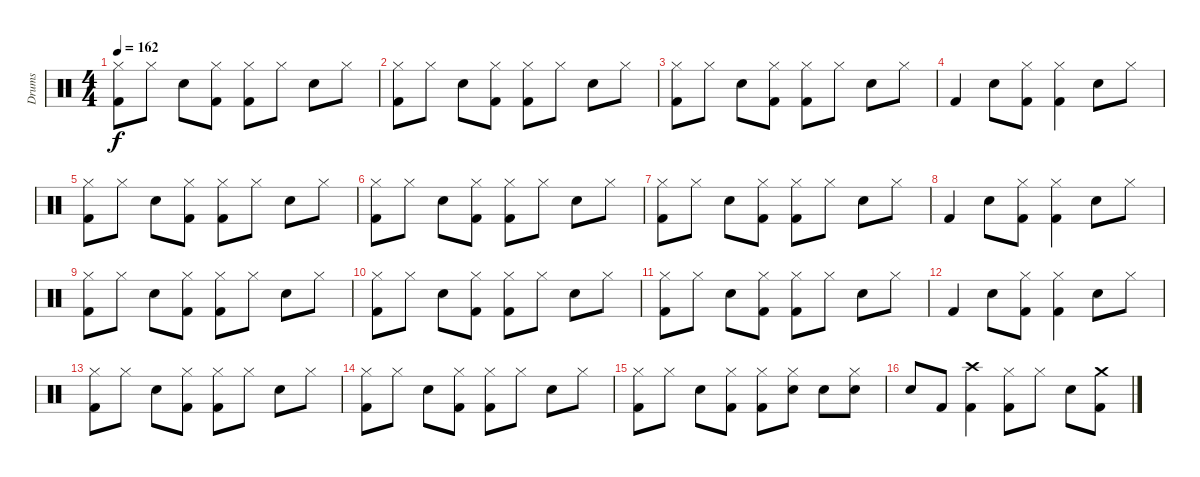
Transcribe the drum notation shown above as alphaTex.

\track ("Drums" "Drums") {instrument percussion}
\staff {score}
\articulation defaults
\ts (4 4)
\tempo 162
\clef neutral
\ks c
("Hi-Hat (closed)" "Kick (hit) 2").8{dy f} "Hi-Hat (closed)".8 "Snare (hit) 2".8 ("Hi-Hat (closed)" "Kick (hit) 2").8 ("Hi-Hat (closed)" "Kick (hit) 2").8 "Hi-Hat (closed)".8 "Snare (hit) 2".8 "Hi-Hat (closed)".8 |
("Hi-Hat (closed)" "Kick (hit) 2").8 "Hi-Hat (closed)".8 "Snare (hit) 2".8 ("Hi-Hat (closed)" "Kick (hit) 2").8 ("Hi-Hat (closed)" "Kick (hit) 2").8 "Hi-Hat (closed)".8 "Snare (hit) 2".8 "Hi-Hat (closed)".8 |
("Hi-Hat (closed)" "Kick (hit) 2").8 "Hi-Hat (closed)".8 "Snare (hit) 2".8 ("Hi-Hat (closed)" "Kick (hit) 2").8 ("Hi-Hat (closed)" "Kick (hit) 2").8 "Hi-Hat (closed)".8 "Snare (hit) 2".8 "Hi-Hat (closed)".8 |
"Kick (hit) 2".4 "Snare (hit) 2".8 ("Hi-Hat (closed)" "Kick (hit) 2").8 ("Hi-Hat (closed)" "Kick (hit) 2").4 "Snare (hit) 2".8 "Hi-Hat (closed)".8 |
("Hi-Hat (closed)" "Kick (hit) 2").8 "Hi-Hat (closed)".8 "Snare (hit) 2".8 ("Hi-Hat (closed)" "Kick (hit) 2").8 ("Hi-Hat (closed)" "Kick (hit) 2").8 "Hi-Hat (closed)".8 "Snare (hit) 2".8 "Hi-Hat (closed)".8 |
("Hi-Hat (closed)" "Kick (hit) 2").8 "Hi-Hat (closed)".8 "Snare (hit) 2".8 ("Hi-Hat (closed)" "Kick (hit) 2").8 ("Hi-Hat (closed)" "Kick (hit) 2").8 "Hi-Hat (closed)".8 "Snare (hit) 2".8 "Hi-Hat (closed)".8 |
("Hi-Hat (closed)" "Kick (hit) 2").8 "Hi-Hat (closed)".8 "Snare (hit) 2".8 ("Hi-Hat (closed)" "Kick (hit) 2").8 ("Hi-Hat (closed)" "Kick (hit) 2").8 "Hi-Hat (closed)".8 "Snare (hit) 2".8 "Hi-Hat (closed)".8 |
"Kick (hit) 2".4 "Snare (hit) 2".8 ("Hi-Hat (closed)" "Kick (hit) 2").8 ("Hi-Hat (closed)" "Kick (hit) 2").4 "Snare (hit) 2".8 "Hi-Hat (closed)".8 |
("Hi-Hat (closed)" "Kick (hit) 2").8 "Hi-Hat (closed)".8 "Snare (hit) 2".8 ("Hi-Hat (closed)" "Kick (hit) 2").8 ("Hi-Hat (closed)" "Kick (hit) 2").8 "Hi-Hat (closed)".8 "Snare (hit) 2".8 "Hi-Hat (closed)".8 |
("Hi-Hat (closed)" "Kick (hit) 2").8 "Hi-Hat (closed)".8 "Snare (hit) 2".8 ("Hi-Hat (closed)" "Kick (hit) 2").8 ("Hi-Hat (closed)" "Kick (hit) 2").8 "Hi-Hat (closed)".8 "Snare (hit) 2".8 "Hi-Hat (closed)".8 |
("Hi-Hat (closed)" "Kick (hit) 2").8 "Hi-Hat (closed)".8 "Snare (hit) 2".8 ("Hi-Hat (closed)" "Kick (hit) 2").8 ("Hi-Hat (closed)" "Kick (hit) 2").8 "Hi-Hat (closed)".8 "Snare (hit) 2".8 "Hi-Hat (closed)".8 |
"Kick (hit) 2".4 "Snare (hit) 2".8 ("Hi-Hat (closed)" "Kick (hit) 2").8 ("Hi-Hat (closed)" "Kick (hit) 2").4 "Snare (hit) 2".8 "Hi-Hat (closed)".8 |
("Hi-Hat (closed)" "Kick (hit) 2").8 "Hi-Hat (closed)".8 "Snare (hit) 2".8 ("Hi-Hat (closed)" "Kick (hit) 2").8 ("Hi-Hat (closed)" "Kick (hit) 2").8 "Hi-Hat (closed)".8 "Snare (hit) 2".8 "Hi-Hat (closed)".8 |
("Hi-Hat (closed)" "Kick (hit) 2").8 "Hi-Hat (closed)".8 "Snare (hit) 2".8 ("Hi-Hat (closed)" "Kick (hit) 2").8 ("Hi-Hat (closed)" "Kick (hit) 2").8 "Hi-Hat (closed)".8 "Snare (hit) 2".8 "Hi-Hat (closed)".8 |
("Hi-Hat (closed)" "Kick (hit) 2").8 "Hi-Hat (closed)".8 "Snare (hit) 2".8 ("Hi-Hat (closed)" "Kick (hit) 2").8 ("Hi-Hat (closed)" "Kick (hit) 2").8 ("Hi-Hat (closed)" "Snare (hit) 2").8 "Snare (hit) 2".8 ("Hi-Hat (closed)" "Snare (hit) 2").8 |
"Snare (hit) 2".8 "Kick (hit) 2".8 ("Crash high (hit)" "Kick (hit) 2").4 ("Hi-Hat (closed)" "Kick (hit) 2").8 "Hi-Hat (closed)".8 "Snare (hit) 2".8 ("Crash medium (hit)" "Kick (hit) 2").8
